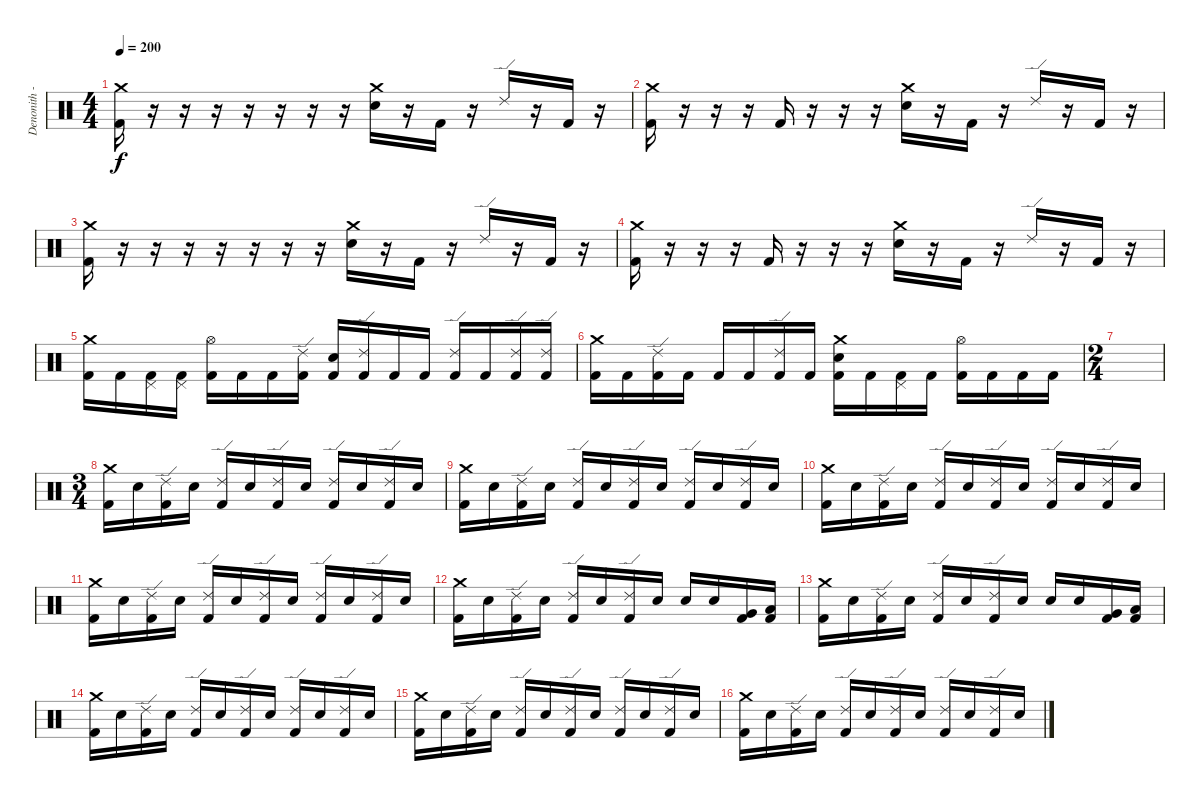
\track ("Denonith - Spyros" "Denonith -") {instrument percussion}
\staff {score}
\articulation defaults
\ts (4 4)
\tempo 200
\clef neutral
\ks c
("Crash medium (hit)" "Kick (hit) 2").16{dy f} r.16 r.16 r.16 r.16 r.16 r.16 r.16 ("Crash medium (hit)" "Electric Snare (hit)").16 r.16 "Kick (hit) 2".16 r.16 "Ride (edge) 2".16 r.16 "Kick (hit) 2".16 r.16 |
("Crash medium (hit)" "Kick (hit) 2").16 r.16 r.16 r.16 "Kick (hit) 2".16 r.16 r.16 r.16 ("Crash medium (hit)" "Electric Snare (hit)").16 r.16 "Kick (hit) 2".16 r.16 "Ride (edge) 2".16 r.16 "Kick (hit) 2".16 r.16 |
("Crash medium (hit)" "Kick (hit) 2").16 r.16 r.16 r.16 r.16 r.16 r.16 r.16 ("Crash medium (hit)" "Electric Snare (hit)").16 r.16 "Kick (hit) 2".16 r.16 "Ride (edge) 2".16 r.16 "Kick (hit) 2".16 r.16 |
("Crash medium (hit)" "Kick (hit) 2").16 r.16 r.16 r.16 "Kick (hit) 2".16 r.16 r.16 r.16 ("Crash medium (hit)" "Electric Snare (hit)").16 r.16 "Kick (hit) 2".16 r.16 "Ride (edge) 2".16 r.16 "Kick (hit) 2".16 r.16 |
("Crash medium (hit)" "Kick (hit) 2").16 "Kick (hit) 2".16 ("Pedal Hi-Hat (hit)" "Kick (hit) 2").16 ("Pedal Hi-Hat (hit)" "Kick (hit) 2").16 ("Hi-Hat (open)" "Kick (hit) 2").16 "Kick (hit) 2".16 "Kick (hit) 2".16 ("Ride (edge) 2" "Kick (hit) 2").16 ("Electric Snare (hit)" "Kick (hit) 2").16 ("Ride (edge) 2" "Kick (hit) 2").16 "Kick (hit) 2".16 "Kick (hit) 2".16 ("Ride (edge) 2" "Kick (hit) 2").16 "Kick (hit) 2".16 ("Ride (edge) 2" "Kick (hit) 2").16 ("Ride (edge) 2" "Kick (hit) 2").16 |
("Crash medium (hit)" "Kick (hit) 2").16 "Kick (hit) 2".16 ("Ride (edge) 2" "Kick (hit) 2").16 "Kick (hit) 2".16 "Kick (hit) 2".16 "Kick (hit) 2".16 ("Ride (edge) 2" "Kick (hit) 2").16 "Kick (hit) 2".16 ("Crash medium (hit)" "Electric Snare (hit)" "Kick (hit) 2").16 "Kick (hit) 2".16 ("Pedal Hi-Hat (hit)" "Kick (hit) 2").16 "Kick (hit) 2".16 ("Hi-Hat (open)" "Kick (hit) 2").16 "Kick (hit) 2".16 "Kick (hit) 2".16 "Kick (hit) 2".16 |
\ts (2 4)
|
\ts (3 4)
("Crash medium (hit)" "Kick (hit) 2").16 "Electric Snare (hit)".16 ("Ride (edge) 2" "Kick (hit) 2").16 "Electric Snare (hit)".16 ("Ride (edge) 2" "Kick (hit) 2").16 "Electric Snare (hit)".16 ("Ride (edge) 2" "Kick (hit) 2").16 "Electric Snare (hit)".16 ("Ride (edge) 2" "Kick (hit) 2").16 "Electric Snare (hit)".16 ("Ride (edge) 2" "Kick (hit) 2").16 "Electric Snare (hit)".16 |
("Crash medium (hit)" "Kick (hit) 2").16 "Electric Snare (hit)".16 ("Ride (edge) 2" "Kick (hit) 2").16 "Electric Snare (hit)".16 ("Ride (edge) 2" "Kick (hit) 2").16 "Electric Snare (hit)".16 ("Ride (edge) 2" "Kick (hit) 2").16 "Electric Snare (hit)".16 ("Ride (edge) 2" "Kick (hit) 2").16 "Electric Snare (hit)".16 ("Ride (edge) 2" "Kick (hit) 2").16 "Electric Snare (hit)".16 |
("Crash medium (hit)" "Kick (hit) 2").16 "Electric Snare (hit)".16 ("Ride (edge) 2" "Kick (hit) 2").16 "Electric Snare (hit)".16 ("Ride (edge) 2" "Kick (hit) 2").16 "Electric Snare (hit)".16 ("Ride (edge) 2" "Kick (hit) 2").16 "Electric Snare (hit)".16 ("Ride (edge) 2" "Kick (hit) 2").16 "Electric Snare (hit)".16 ("Ride (edge) 2" "Kick (hit) 2").16 "Electric Snare (hit)".16 |
("Crash medium (hit)" "Kick (hit) 2").16 "Electric Snare (hit)".16 ("Ride (edge) 2" "Kick (hit) 2").16 "Electric Snare (hit)".16 ("Ride (edge) 2" "Kick (hit) 2").16 "Electric Snare (hit)".16 ("Ride (edge) 2" "Kick (hit) 2").16 "Electric Snare (hit)".16 ("Ride (edge) 2" "Kick (hit) 2").16 "Electric Snare (hit)".16 ("Ride (edge) 2" "Kick (hit) 2").16 "Electric Snare (hit)".16 |
("Crash medium (hit)" "Kick (hit) 2").16 "Electric Snare (hit)".16 ("Ride (edge) 2" "Kick (hit) 2").16 "Electric Snare (hit)".16 ("Ride (edge) 2" "Kick (hit) 2").16 "Electric Snare (hit)".16 ("Ride (edge) 2" "Kick (hit) 2").16 "Electric Snare (hit)".16 "Electric Snare (hit)".16 "Electric Snare (hit)".16 ("Very Low Tom (hit)" "Kick (hit) 2").16 ("Low Floor Tom (hit)" "Kick (hit) 2").16 |
("Crash medium (hit)" "Kick (hit) 2").16 "Electric Snare (hit)".16 ("Ride (edge) 2" "Kick (hit) 2").16 "Electric Snare (hit)".16 ("Ride (edge) 2" "Kick (hit) 2").16 "Electric Snare (hit)".16 ("Ride (edge) 2" "Kick (hit) 2").16 "Electric Snare (hit)".16 "Electric Snare (hit)".16 "Electric Snare (hit)".16 ("Very Low Tom (hit)" "Kick (hit) 2").16 ("Low Floor Tom (hit)" "Kick (hit) 2").16 |
("Crash medium (hit)" "Kick (hit) 2").16 "Electric Snare (hit)".16 ("Ride (edge) 2" "Kick (hit) 2").16 "Electric Snare (hit)".16 ("Ride (edge) 2" "Kick (hit) 2").16 "Electric Snare (hit)".16 ("Ride (edge) 2" "Kick (hit) 2").16 "Electric Snare (hit)".16 ("Ride (edge) 2" "Kick (hit) 2").16 "Electric Snare (hit)".16 ("Ride (edge) 2" "Kick (hit) 2").16 "Electric Snare (hit)".16 |
("Crash medium (hit)" "Kick (hit) 2").16 "Electric Snare (hit)".16 ("Ride (edge) 2" "Kick (hit) 2").16 "Electric Snare (hit)".16 ("Ride (edge) 2" "Kick (hit) 2").16 "Electric Snare (hit)".16 ("Ride (edge) 2" "Kick (hit) 2").16 "Electric Snare (hit)".16 ("Ride (edge) 2" "Kick (hit) 2").16 "Electric Snare (hit)".16 ("Ride (edge) 2" "Kick (hit) 2").16 "Electric Snare (hit)".16 |
("Crash medium (hit)" "Kick (hit) 2").16 "Electric Snare (hit)".16 ("Ride (edge) 2" "Kick (hit) 2").16 "Electric Snare (hit)".16 ("Ride (edge) 2" "Kick (hit) 2").16 "Electric Snare (hit)".16 ("Ride (edge) 2" "Kick (hit) 2").16 "Electric Snare (hit)".16 ("Ride (edge) 2" "Kick (hit) 2").16 "Electric Snare (hit)".16 ("Ride (edge) 2" "Kick (hit) 2").16 "Electric Snare (hit)".16
